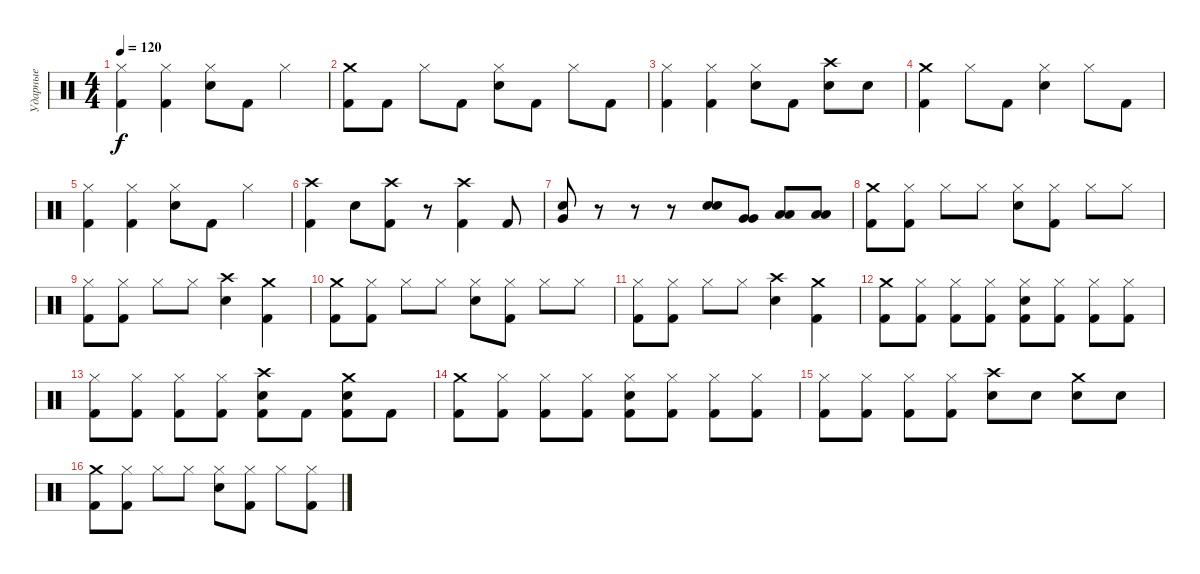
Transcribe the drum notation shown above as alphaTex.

\track ("Ударные" "Ударные") {instrument percussion}
\staff {score}
\articulation defaults
\ts (4 4)
\tempo 120
\clef neutral
\ks c
("Hi-Hat (closed)" "Kick (hit) 2").4{dy f} ("Hi-Hat (closed)" "Kick (hit) 2").4 ("Hi-Hat (closed)" "Snare (hit) 2").8 "Kick (hit) 2".8 "Hi-Hat (closed)".4 |
("Crash medium (hit)" "Kick (hit) 2").8 "Kick (hit) 2".8 "Hi-Hat (closed)".8 "Kick (hit) 2".8 ("Hi-Hat (closed)" "Snare (hit) 2").8 "Kick (hit) 2".8 "Hi-Hat (closed)".8 "Kick (hit) 2".8 |
("Hi-Hat (closed)" "Kick (hit) 2").4 ("Hi-Hat (closed)" "Kick (hit) 2").4 ("Hi-Hat (closed)" "Snare (hit) 2").8 "Kick (hit) 2".8 ("Crash high (hit)" "Snare (hit) 2").8 "Snare (hit) 2".8 |
("Crash medium (hit)" "Kick (hit) 2").4 "Hi-Hat (closed)".8 "Kick (hit) 2".8 ("Hi-Hat (closed)" "Snare (hit) 2").4 "Hi-Hat (closed)".8 "Kick (hit) 2".8 |
("Hi-Hat (closed)" "Kick (hit) 2").4 ("Hi-Hat (closed)" "Kick (hit) 2").4 ("Hi-Hat (closed)" "Snare (hit) 2").8 "Kick (hit) 2".8 "Hi-Hat (closed)".4 |
("Crash high (hit)" "Kick (hit) 2").4 "Snare (hit) 2".8 ("Crash high (hit)" "Kick (hit) 2").8 r.8 ("Crash high (hit)" "Kick (hit) 2").4 "Kick (hit) 2".8 |
("Snare (hit) 2" "Very Low Tom (hit)").8 r.8 r.8 r.8 ("Snare (hit) 2" "Snare (hit) 2").8 ("Very Low Tom (hit)" "Very Low Tom (hit)").8 ("Low Floor Tom (hit)" "Low Floor Tom (hit)").8 ("Low Floor Tom (hit)" "Low Floor Tom (hit)").8 |
("Crash medium (hit)" "Kick (hit) 2").8 ("Hi-Hat (closed)" "Kick (hit) 2").8 "Hi-Hat (closed)".8 "Hi-Hat (closed)".8 ("Hi-Hat (closed)" "Snare (hit) 2").8 ("Hi-Hat (closed)" "Kick (hit) 2").8 "Hi-Hat (closed)".8 "Hi-Hat (closed)".8 |
("Hi-Hat (closed)" "Kick (hit) 2").8 ("Hi-Hat (closed)" "Kick (hit) 2").8 "Hi-Hat (closed)".8 "Hi-Hat (closed)".8 ("Crash high (hit)" "Snare (hit) 2").4 ("Crash medium (hit)" "Kick (hit) 2").4 |
("Crash medium (hit)" "Kick (hit) 2").8 ("Hi-Hat (closed)" "Kick (hit) 2").8 "Hi-Hat (closed)".8 "Hi-Hat (closed)".8 ("Hi-Hat (closed)" "Snare (hit) 2").8 ("Hi-Hat (closed)" "Kick (hit) 2").8 "Hi-Hat (closed)".8 "Hi-Hat (closed)".8 |
("Hi-Hat (closed)" "Kick (hit) 2").8 ("Hi-Hat (closed)" "Kick (hit) 2").8 "Hi-Hat (closed)".8 "Hi-Hat (closed)".8 ("Crash high (hit)" "Snare (hit) 2").4 ("Crash medium (hit)" "Kick (hit) 2").4 |
("Crash medium (hit)" "Kick (hit) 2").8 ("Hi-Hat (closed)" "Kick (hit) 2").8 ("Hi-Hat (closed)" "Kick (hit) 2").8 ("Hi-Hat (closed)" "Kick (hit) 2").8 ("Hi-Hat (closed)" "Snare (hit) 2" "Kick (hit) 2").8 ("Hi-Hat (closed)" "Kick (hit) 2").8 ("Hi-Hat (closed)" "Kick (hit) 2").8 ("Hi-Hat (closed)" "Kick (hit) 2").8 |
("Hi-Hat (closed)" "Kick (hit) 2").8 ("Hi-Hat (closed)" "Kick (hit) 2").8 ("Hi-Hat (closed)" "Kick (hit) 2").8 ("Hi-Hat (closed)" "Kick (hit) 2").8 ("Crash high (hit)" "Snare (hit) 2" "Kick (hit) 2").8 "Kick (hit) 2".8 ("Crash medium (hit)" "Snare (hit) 2" "Kick (hit) 2").8 "Kick (hit) 2".8 |
("Crash medium (hit)" "Kick (hit) 2").8 ("Hi-Hat (closed)" "Kick (hit) 2").8 ("Hi-Hat (closed)" "Kick (hit) 2").8 ("Hi-Hat (closed)" "Kick (hit) 2").8 ("Hi-Hat (closed)" "Snare (hit) 2" "Kick (hit) 2").8 ("Hi-Hat (closed)" "Kick (hit) 2").8 ("Hi-Hat (closed)" "Kick (hit) 2").8 ("Hi-Hat (closed)" "Kick (hit) 2").8 |
("Hi-Hat (closed)" "Kick (hit) 2").8 ("Hi-Hat (closed)" "Kick (hit) 2").8 ("Hi-Hat (closed)" "Kick (hit) 2").8 ("Hi-Hat (closed)" "Kick (hit) 2").8 ("Crash high (hit)" "Snare (hit) 2").8 "Snare (hit) 2".8 ("Crash medium (hit)" "Snare (hit) 2").8 "Snare (hit) 2".8 |
("Crash medium (hit)" "Kick (hit) 2").8 ("Hi-Hat (closed)" "Kick (hit) 2").8 "Hi-Hat (closed)".8 "Hi-Hat (closed)".8 ("Hi-Hat (closed)" "Snare (hit) 2").8 ("Hi-Hat (closed)" "Kick (hit) 2").8 "Hi-Hat (closed)".8 ("Hi-Hat (closed)" "Kick (hit) 2").8
